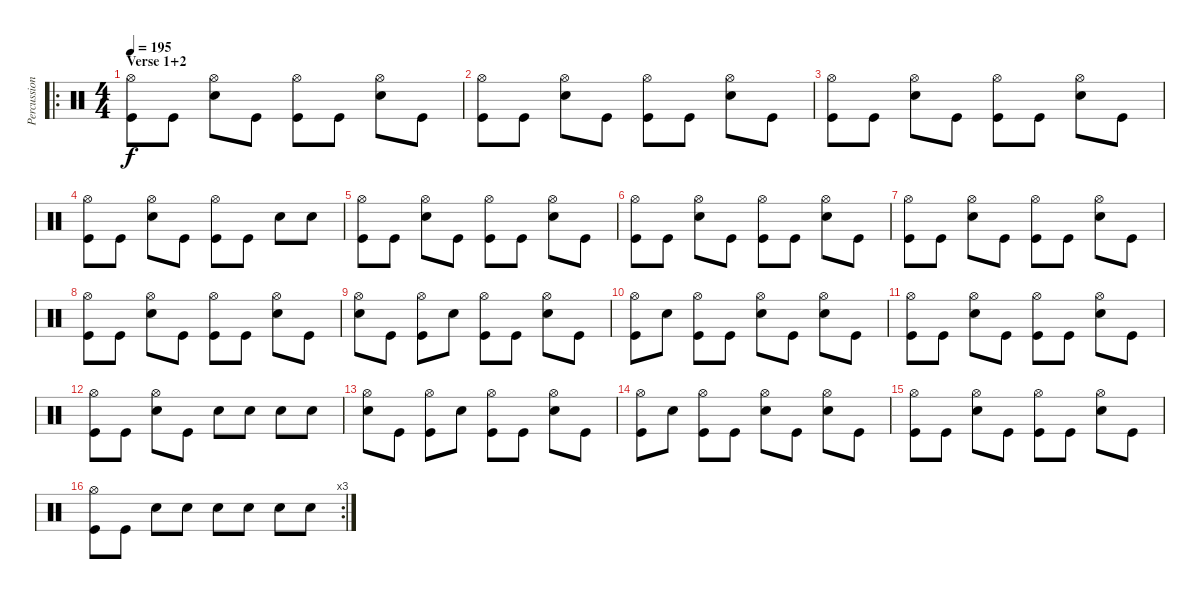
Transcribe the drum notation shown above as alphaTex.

\track ("Percussion" "Percussion") {instrument percussion}
\staff {score}
\articulation defaults
\ro
\ts (4 4)
\section ("" "Verse 1+2")
\tempo 195
\clef neutral
\ks c
("Hi-Hat (open)" "Kick (hit)").8{dy f} "Kick (hit)".8 ("Hi-Hat (open)" "Snare (hit) 2").8 "Kick (hit)".8 ("Hi-Hat (open)" "Kick (hit)").8 "Kick (hit)".8 ("Hi-Hat (open)" "Snare (hit) 2").8 "Kick (hit)".8 |
("Hi-Hat (open)" "Kick (hit)").8 "Kick (hit)".8 ("Hi-Hat (open)" "Snare (hit) 2").8 "Kick (hit)".8 ("Hi-Hat (open)" "Kick (hit)").8 "Kick (hit)".8 ("Hi-Hat (open)" "Snare (hit) 2").8 "Kick (hit)".8 |
("Hi-Hat (open)" "Kick (hit)").8 "Kick (hit)".8 ("Hi-Hat (open)" "Snare (hit) 2").8 "Kick (hit)".8 ("Hi-Hat (open)" "Kick (hit)").8 "Kick (hit)".8 ("Hi-Hat (open)" "Snare (hit) 2").8 "Kick (hit)".8 |
("Hi-Hat (open)" "Kick (hit)").8 "Kick (hit)".8 ("Hi-Hat (open)" "Snare (hit) 2").8 "Kick (hit)".8 ("Hi-Hat (open)" "Kick (hit)").8 "Kick (hit)".8 "Snare (hit) 2".8 "Snare (hit) 2".8 |
("Hi-Hat (open)" "Kick (hit)").8 "Kick (hit)".8 ("Hi-Hat (open)" "Snare (hit) 2").8 "Kick (hit)".8 ("Hi-Hat (open)" "Kick (hit)").8 "Kick (hit)".8 ("Hi-Hat (open)" "Snare (hit) 2").8 "Kick (hit)".8 |
("Hi-Hat (open)" "Kick (hit)").8 "Kick (hit)".8 ("Hi-Hat (open)" "Snare (hit) 2").8 "Kick (hit)".8 ("Hi-Hat (open)" "Kick (hit)").8 "Kick (hit)".8 ("Hi-Hat (open)" "Snare (hit) 2").8 "Kick (hit)".8 |
("Hi-Hat (open)" "Kick (hit)").8 "Kick (hit)".8 ("Hi-Hat (open)" "Snare (hit) 2").8 "Kick (hit)".8 ("Hi-Hat (open)" "Kick (hit)").8 "Kick (hit)".8 ("Hi-Hat (open)" "Snare (hit) 2").8 "Kick (hit)".8 |
("Hi-Hat (open)" "Kick (hit)").8 "Kick (hit)".8 ("Hi-Hat (open)" "Snare (hit) 2").8 "Kick (hit)".8 ("Hi-Hat (open)" "Kick (hit)").8 "Kick (hit)".8 ("Hi-Hat (open)" "Snare (hit) 2").8 "Kick (hit)".8 |
("Hi-Hat (open)" "Snare (hit) 2").8 "Kick (hit)".8 ("Hi-Hat (open)" "Kick (hit)").8 "Snare (hit) 2".8 ("Hi-Hat (open)" "Kick (hit)").8 "Kick (hit)".8 ("Hi-Hat (open)" "Snare (hit) 2").8 "Kick (hit)".8 |
("Hi-Hat (open)" "Kick (hit)").8 "Snare (hit) 2".8 ("Hi-Hat (open)" "Kick (hit)").8 "Kick (hit)".8 ("Hi-Hat (open)" "Snare (hit) 2").8 "Kick (hit)".8 ("Hi-Hat (open)" "Snare (hit) 2").8 "Kick (hit)".8 |
("Hi-Hat (open)" "Kick (hit)").8 "Kick (hit)".8 ("Hi-Hat (open)" "Snare (hit) 2").8 "Kick (hit)".8 ("Hi-Hat (open)" "Kick (hit)").8 "Kick (hit)".8 ("Hi-Hat (open)" "Snare (hit) 2").8 "Kick (hit)".8 |
("Hi-Hat (open)" "Kick (hit)").8 "Kick (hit)".8 ("Hi-Hat (open)" "Snare (hit) 2").8 "Kick (hit)".8 "Snare (hit) 2".8 "Snare (hit) 2".8 "Snare (hit) 2".8 "Snare (hit) 2".8 |
("Hi-Hat (open)" "Snare (hit) 2").8 "Kick (hit)".8 ("Hi-Hat (open)" "Kick (hit)").8 "Snare (hit) 2".8 ("Hi-Hat (open)" "Kick (hit)").8 "Kick (hit)".8 ("Hi-Hat (open)" "Snare (hit) 2").8 "Kick (hit)".8 |
("Hi-Hat (open)" "Kick (hit)").8 "Snare (hit) 2".8 ("Hi-Hat (open)" "Kick (hit)").8 "Kick (hit)".8 ("Hi-Hat (open)" "Snare (hit) 2").8 "Kick (hit)".8 ("Hi-Hat (open)" "Snare (hit) 2").8 "Kick (hit)".8 |
("Hi-Hat (open)" "Kick (hit)").8 "Kick (hit)".8 ("Hi-Hat (open)" "Snare (hit) 2").8 "Kick (hit)".8 ("Hi-Hat (open)" "Kick (hit)").8 "Kick (hit)".8 ("Hi-Hat (open)" "Snare (hit) 2").8 "Kick (hit)".8 |
\rc 3
("Hi-Hat (open)" "Kick (hit)").8 "Kick (hit)".8 "Snare (hit) 2".8 "Snare (hit) 2".8 "Snare (hit) 2".8 "Snare (hit) 2".8 "Snare (hit) 2".8 "Snare (hit) 2".8
